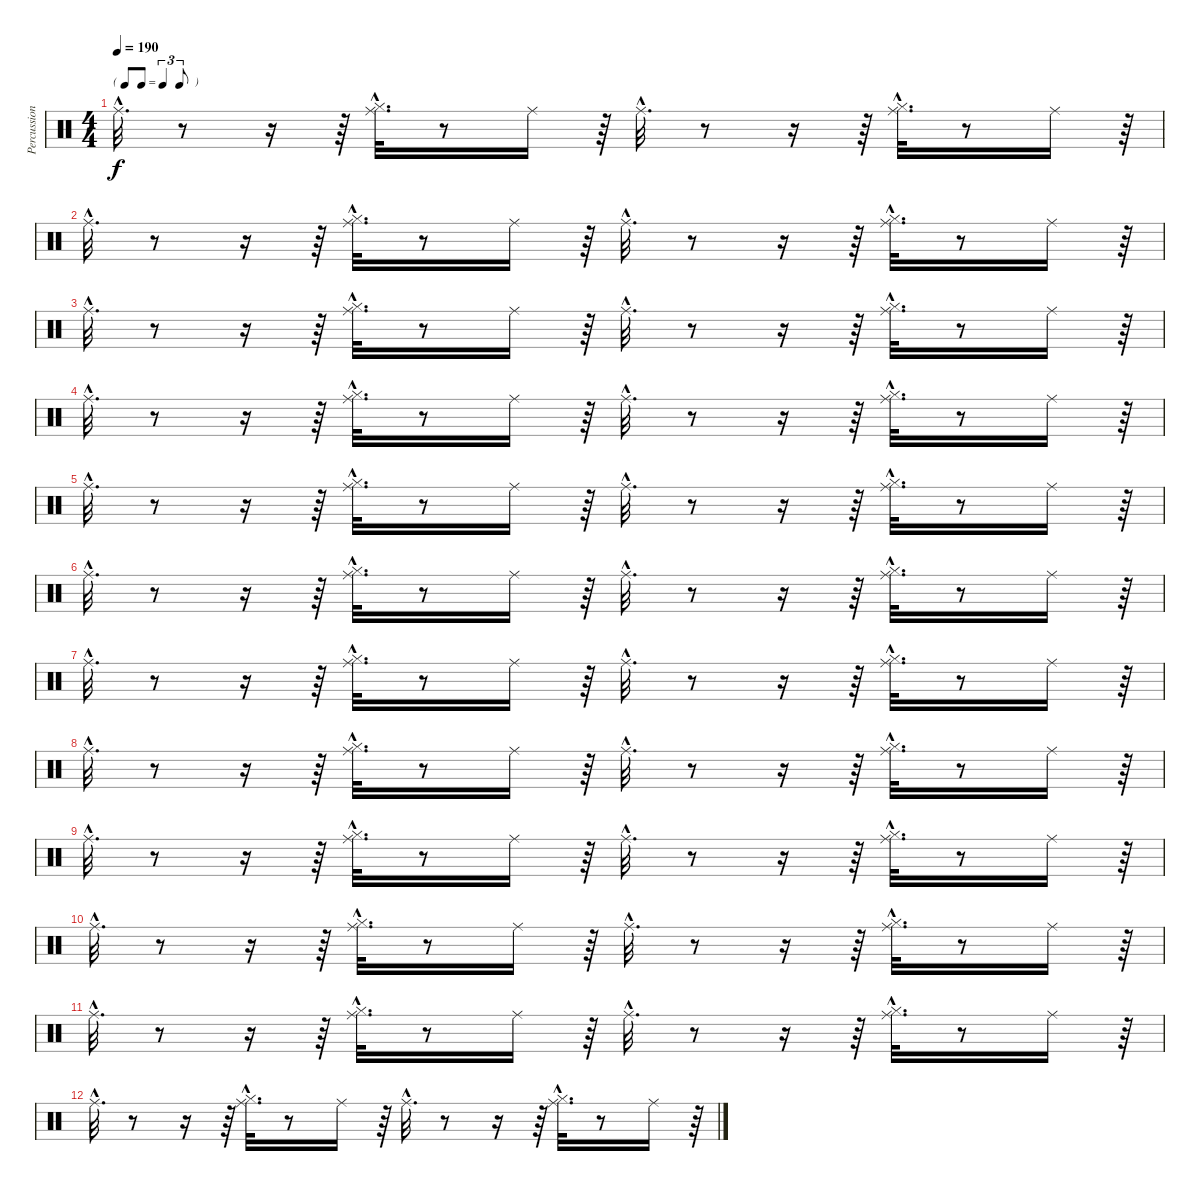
\track ("Percussions" "Percussion") {instrument percussion}
\staff {score}
\articulation defaults
\ts (4 4)
\tf triplet8th
\tempo 190
\clef neutral
\ks c "Ride (middle)"{hac}.32{d dy f}
r.8 r.16 r.64 ("Hi-Hat (closed)"{hac} "Ride (middle)"{hac}).32{d} r.8 "Ride (middle)".16 r.64 "Ride (middle)"{hac}.32{d} r.8 r.16 r.64 ("Hi-Hat (closed)"{hac} "Ride (middle)"{hac}).32{d} r.8 "Ride (middle)".16 r.64 |
"Ride (middle)"{hac}.32{d} r.8 r.16 r.64 ("Hi-Hat (closed)"{hac} "Ride (middle)"{hac}).32{d} r.8 "Ride (middle)".16 r.64 "Ride (middle)"{hac}.32{d} r.8 r.16 r.64 ("Hi-Hat (closed)"{hac} "Ride (middle)"{hac}).32{d} r.8 "Ride (middle)".16 r.64 |
"Ride (middle)"{hac}.32{d} r.8 r.16 r.64 ("Hi-Hat (closed)"{hac} "Ride (middle)"{hac}).32{d} r.8 "Ride (middle)".16 r.64 "Ride (middle)"{hac}.32{d} r.8 r.16 r.64 ("Hi-Hat (closed)"{hac} "Ride (middle)"{hac}).32{d} r.8 "Ride (middle)".16 r.64 |
"Ride (middle)"{hac}.32{d} r.8 r.16 r.64 ("Hi-Hat (closed)"{hac} "Ride (middle)"{hac}).32{d} r.8 "Ride (middle)".16 r.64 "Ride (middle)"{hac}.32{d} r.8 r.16 r.64 ("Hi-Hat (closed)"{hac} "Ride (middle)"{hac}).32{d} r.8 "Ride (middle)".16 r.64 |
"Ride (middle)"{hac}.32{d} r.8 r.16 r.64 ("Hi-Hat (closed)"{hac} "Ride (middle)"{hac}).32{d} r.8 "Ride (middle)".16 r.64 "Ride (middle)"{hac}.32{d} r.8 r.16 r.64 ("Hi-Hat (closed)"{hac} "Ride (middle)"{hac}).32{d} r.8 "Ride (middle)".16 r.64 |
"Ride (middle)"{hac}.32{d} r.8 r.16 r.64 ("Hi-Hat (closed)"{hac} "Ride (middle)"{hac}).32{d} r.8 "Ride (middle)".16 r.64 "Ride (middle)"{hac}.32{d} r.8 r.16 r.64 ("Hi-Hat (closed)"{hac} "Ride (middle)"{hac}).32{d} r.8 "Ride (middle)".16 r.64 |
"Ride (middle)"{hac}.32{d} r.8 r.16 r.64 ("Hi-Hat (closed)"{hac} "Ride (middle)"{hac}).32{d} r.8 "Ride (middle)".16 r.64 "Ride (middle)"{hac}.32{d} r.8 r.16 r.64 ("Hi-Hat (closed)"{hac} "Ride (middle)"{hac}).32{d} r.8 "Ride (middle)".16 r.64 |
"Ride (middle)"{hac}.32{d} r.8 r.16 r.64 ("Hi-Hat (closed)"{hac} "Ride (middle)"{hac}).32{d} r.8 "Ride (middle)".16 r.64 "Ride (middle)"{hac}.32{d} r.8 r.16 r.64 ("Hi-Hat (closed)"{hac} "Ride (middle)"{hac}).32{d} r.8 "Ride (middle)".16 r.64 |
"Ride (middle)"{hac}.32{d} r.8 r.16 r.64 ("Hi-Hat (closed)"{hac} "Ride (middle)"{hac}).32{d} r.8 "Ride (middle)".16 r.64 "Ride (middle)"{hac}.32{d} r.8 r.16 r.64 ("Hi-Hat (closed)"{hac} "Ride (middle)"{hac}).32{d} r.8 "Ride (middle)".16 r.64 |
"Ride (middle)"{hac}.32{d} r.8 r.16 r.64 ("Hi-Hat (closed)"{hac} "Ride (middle)"{hac}).32{d} r.8 "Ride (middle)".16 r.64 "Ride (middle)"{hac}.32{d} r.8 r.16 r.64 ("Hi-Hat (closed)"{hac} "Ride (middle)"{hac}).32{d} r.8 "Ride (middle)".16 r.64 |
"Ride (middle)"{hac}.32{d} r.8 r.16 r.64 ("Hi-Hat (closed)"{hac} "Ride (middle)"{hac}).32{d} r.8 "Ride (middle)".16 r.64 "Ride (middle)"{hac}.32{d} r.8 r.16 r.64 ("Hi-Hat (closed)"{hac} "Ride (middle)"{hac}).32{d} r.8 "Ride (middle)".16 r.64 |
"Ride (middle)"{hac}.32{d} r.8 r.16 r.64 ("Hi-Hat (closed)"{hac} "Ride (middle)"{hac}).32{d} r.8 "Ride (middle)".16 r.64 "Ride (middle)"{hac}.32{d} r.8 r.16 r.64 ("Hi-Hat (closed)"{hac} "Ride (middle)"{hac}).32{d} r.8 "Ride (middle)".16 r.64
